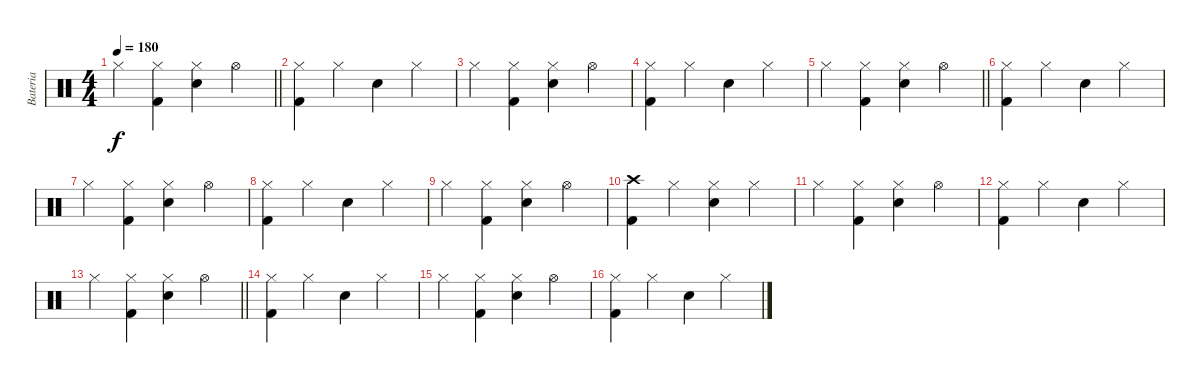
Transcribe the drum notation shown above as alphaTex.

\track ("Bateria" "Bateria") {instrument percussion}
\staff {score}
\articulation defaults
\ts (4 4)
\tempo 180
\clef neutral
\barLineRight lightlight
\ks c "Hi-Hat (closed)".4{dy f}
("Hi-Hat (closed)" "Kick (hit) 2").4 ("Hi-Hat (closed)" "Electric Snare (hit)").4 "Hi-Hat (open)".4 |
("Hi-Hat (closed)" "Kick (hit) 2").4 "Hi-Hat (closed)".4 "Electric Snare (hit)".4 "Hi-Hat (closed)".4 |
"Hi-Hat (closed)".4 ("Hi-Hat (closed)" "Kick (hit) 2").4 ("Hi-Hat (closed)" "Electric Snare (hit)").4 "Hi-Hat (open)".4 |
("Hi-Hat (closed)" "Kick (hit) 2").4 "Hi-Hat (closed)".4 "Electric Snare (hit)".4 "Hi-Hat (closed)".4 |
\barLineRight lightlight "Hi-Hat (closed)".4
("Hi-Hat (closed)" "Kick (hit) 2").4 ("Hi-Hat (closed)" "Electric Snare (hit)").4 "Hi-Hat (open)".4 |
("Hi-Hat (closed)" "Kick (hit) 2").4 "Hi-Hat (closed)".4 "Electric Snare (hit)".4 "Hi-Hat (closed)".4 |
"Hi-Hat (closed)".4 ("Hi-Hat (closed)" "Kick (hit) 2").4 ("Hi-Hat (closed)" "Electric Snare (hit)").4 "Hi-Hat (open)".4 |
("Hi-Hat (closed)" "Kick (hit) 2").4 "Hi-Hat (closed)".4 "Electric Snare (hit)".4 "Hi-Hat (closed)".4 |
"Hi-Hat (closed)".4 ("Hi-Hat (closed)" "Kick (hit) 2").4 ("Hi-Hat (closed)" "Electric Snare (hit)").4 "Hi-Hat (open)".4 |
("Crash high (hit)" "Kick (hit) 2").4 "Hi-Hat (closed)".4 ("Electric Snare (hit)" "Hi-Hat (closed)").4 "Hi-Hat (closed)".4 |
"Hi-Hat (closed)".4 ("Hi-Hat (closed)" "Kick (hit) 2").4 ("Hi-Hat (closed)" "Electric Snare (hit)").4 "Hi-Hat (open)".4 |
("Hi-Hat (closed)" "Kick (hit) 2").4 "Hi-Hat (closed)".4 "Electric Snare (hit)".4 "Hi-Hat (closed)".4 |
\barLineRight lightlight "Hi-Hat (closed)".4
("Hi-Hat (closed)" "Kick (hit) 2").4 ("Hi-Hat (closed)" "Electric Snare (hit)").4 "Hi-Hat (open)".4 |
("Hi-Hat (closed)" "Kick (hit) 2").4 "Hi-Hat (closed)".4 "Electric Snare (hit)".4 "Hi-Hat (closed)".4 |
"Hi-Hat (closed)".4 ("Hi-Hat (closed)" "Kick (hit) 2").4 ("Hi-Hat (closed)" "Electric Snare (hit)").4 "Hi-Hat (open)".4 |
("Hi-Hat (closed)" "Kick (hit) 2").4 "Hi-Hat (closed)".4 "Electric Snare (hit)".4 "Hi-Hat (closed)".4
